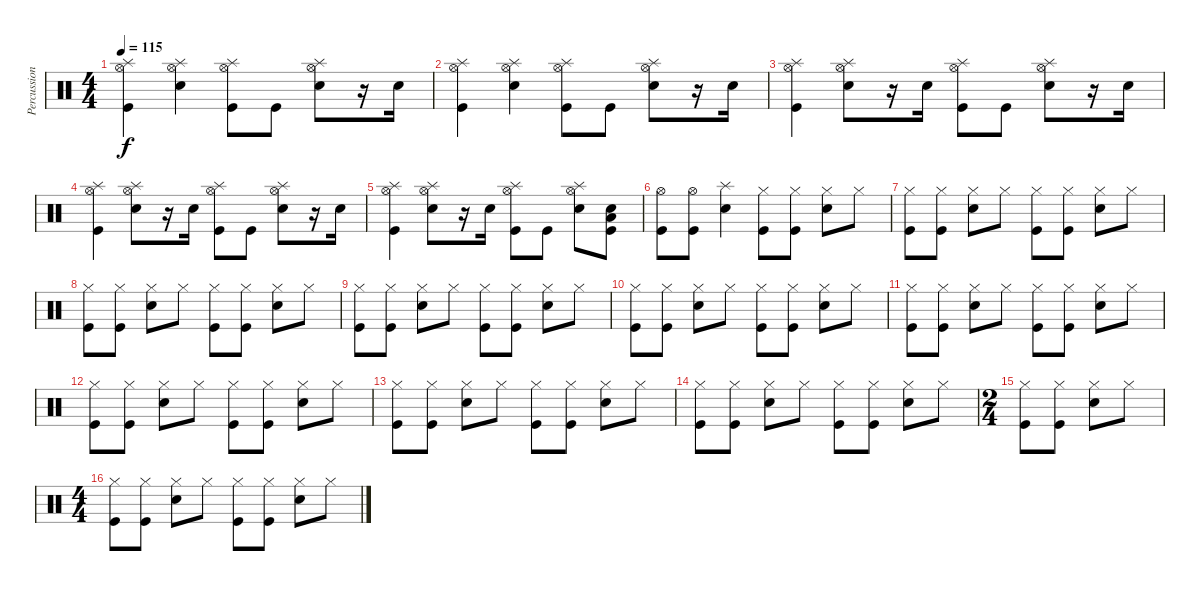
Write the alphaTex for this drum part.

\track ("Percussion" "Percussion") {instrument percussion}
\staff {score}
\articulation defaults
\ts (4 4)
\tempo 115
\clef neutral
\ks c
("Splash (hit)" "Hi-Hat (open)" "Kick (hit)").4{dy f} ("Splash (hit)" "Hi-Hat (open)" "Snare (hit) 2").4 ("Splash (hit)" "Hi-Hat (open)" "Kick (hit)").8 "Kick (hit)".8 ("Splash (hit)" "Hi-Hat (open)" "Snare (hit) 2").8 r.16 "Snare (hit) 2".16 |
("Splash (hit)" "Hi-Hat (open)" "Kick (hit)").4 ("Splash (hit)" "Hi-Hat (open)" "Snare (hit) 2").4 ("Splash (hit)" "Hi-Hat (open)" "Kick (hit)").8 "Kick (hit)".8 ("Splash (hit)" "Hi-Hat (open)" "Snare (hit) 2").8 r.16 "Snare (hit) 2".16 |
("Splash (hit)" "Hi-Hat (open)" "Kick (hit)").4 ("Splash (hit)" "Hi-Hat (open)" "Snare (hit) 2").8 r.16 "Snare (hit) 2".16 ("Splash (hit)" "Hi-Hat (open)" "Kick (hit)").8 "Kick (hit)".8 ("Splash (hit)" "Hi-Hat (open)" "Snare (hit) 2").8 r.16 "Snare (hit) 2".16 |
("Splash (hit)" "Hi-Hat (open)" "Kick (hit)").4 ("Splash (hit)" "Hi-Hat (open)" "Snare (hit) 2").8 r.16 "Snare (hit) 2".16 ("Splash (hit)" "Hi-Hat (open)" "Kick (hit)").8 "Kick (hit)".8 ("Splash (hit)" "Hi-Hat (open)" "Snare (hit) 2").8 r.16 "Snare (hit) 2".16 |
("Splash (hit)" "Hi-Hat (open)" "Kick (hit)").4 ("Splash (hit)" "Hi-Hat (open)" "Snare (hit) 2").8 r.16 "Snare (hit) 2".16 ("Splash (hit)" "Hi-Hat (open)" "Kick (hit)").8 "Kick (hit)".8 ("Splash (hit)" "Hi-Hat (open)" "Snare (hit) 2").8 ("Low Tom (hit)" "Snare (hit) 2" "Kick (hit)").8 |
("Hi-Hat (open)" "Kick (hit)").8 ("Hi-Hat (open)" "Kick (hit)").8 ("Splash (hit)" "Snare (hit) 2").4 ("Hi-Hat (closed)" "Kick (hit)").8 ("Hi-Hat (closed)" "Kick (hit)").8 ("Hi-Hat (closed)" "Snare (hit) 2").8 "Hi-Hat (closed)".8 |
("Hi-Hat (closed)" "Kick (hit)").8 ("Hi-Hat (closed)" "Kick (hit)").8 ("Hi-Hat (closed)" "Snare (hit) 2").8 "Hi-Hat (closed)".8 ("Hi-Hat (closed)" "Kick (hit)").8 ("Hi-Hat (closed)" "Kick (hit)").8 ("Hi-Hat (closed)" "Snare (hit) 2").8 "Hi-Hat (closed)".8 |
("Hi-Hat (closed)" "Kick (hit)").8 ("Hi-Hat (closed)" "Kick (hit)").8 ("Hi-Hat (closed)" "Snare (hit) 2").8 "Hi-Hat (closed)".8 ("Hi-Hat (closed)" "Kick (hit)").8 ("Hi-Hat (closed)" "Kick (hit)").8 ("Hi-Hat (closed)" "Snare (hit) 2").8 "Hi-Hat (closed)".8 |
("Hi-Hat (closed)" "Kick (hit)").8 ("Hi-Hat (closed)" "Kick (hit)").8 ("Hi-Hat (closed)" "Snare (hit) 2").8 "Hi-Hat (closed)".8 ("Hi-Hat (closed)" "Kick (hit)").8 ("Hi-Hat (closed)" "Kick (hit)").8 ("Hi-Hat (closed)" "Snare (hit) 2").8 "Hi-Hat (closed)".8 |
("Hi-Hat (closed)" "Kick (hit)").8 ("Hi-Hat (closed)" "Kick (hit)").8 ("Hi-Hat (closed)" "Snare (hit) 2").8 "Hi-Hat (closed)".8 ("Hi-Hat (closed)" "Kick (hit)").8 ("Hi-Hat (closed)" "Kick (hit)").8 ("Hi-Hat (closed)" "Snare (hit) 2").8 "Hi-Hat (closed)".8 |
("Hi-Hat (closed)" "Kick (hit)").8 ("Hi-Hat (closed)" "Kick (hit)").8 ("Hi-Hat (closed)" "Snare (hit) 2").8 "Hi-Hat (closed)".8 ("Hi-Hat (closed)" "Kick (hit)").8 ("Hi-Hat (closed)" "Kick (hit)").8 ("Hi-Hat (closed)" "Snare (hit) 2").8 "Hi-Hat (closed)".8 |
("Hi-Hat (closed)" "Kick (hit)").8 ("Hi-Hat (closed)" "Kick (hit)").8 ("Hi-Hat (closed)" "Snare (hit) 2").8 "Hi-Hat (closed)".8 ("Hi-Hat (closed)" "Kick (hit)").8 ("Hi-Hat (closed)" "Kick (hit)").8 ("Hi-Hat (closed)" "Snare (hit) 2").8 "Hi-Hat (closed)".8 |
("Hi-Hat (closed)" "Kick (hit)").8 ("Hi-Hat (closed)" "Kick (hit)").8 ("Hi-Hat (closed)" "Snare (hit) 2").8 "Hi-Hat (closed)".8 ("Hi-Hat (closed)" "Kick (hit)").8 ("Hi-Hat (closed)" "Kick (hit)").8 ("Hi-Hat (closed)" "Snare (hit) 2").8 "Hi-Hat (closed)".8 |
("Hi-Hat (closed)" "Kick (hit)").8 ("Hi-Hat (closed)" "Kick (hit)").8 ("Hi-Hat (closed)" "Snare (hit) 2").8 "Hi-Hat (closed)".8 ("Hi-Hat (closed)" "Kick (hit)").8 ("Hi-Hat (closed)" "Kick (hit)").8 ("Hi-Hat (closed)" "Snare (hit) 2").8 "Hi-Hat (closed)".8 |
\ts (2 4)
("Hi-Hat (closed)" "Kick (hit)").8 ("Hi-Hat (closed)" "Kick (hit)").8 ("Hi-Hat (closed)" "Snare (hit) 2").8 "Hi-Hat (closed)".8 |
\ts (4 4)
("Hi-Hat (closed)" "Kick (hit)").8 ("Hi-Hat (closed)" "Kick (hit)").8 ("Hi-Hat (closed)" "Snare (hit) 2").8 "Hi-Hat (closed)".8 ("Hi-Hat (closed)" "Kick (hit)").8 ("Hi-Hat (closed)" "Kick (hit)").8 ("Hi-Hat (closed)" "Snare (hit) 2").8 "Hi-Hat (closed)".8
